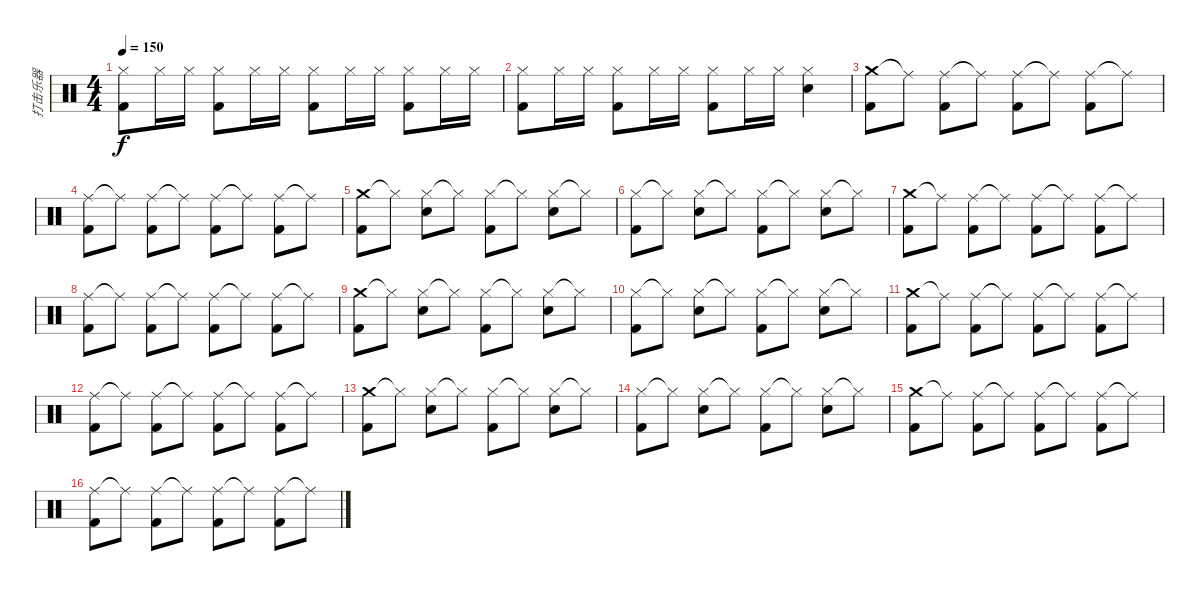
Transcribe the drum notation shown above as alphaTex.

\track ("打击乐器" "打击乐器") {instrument percussion}
\staff {score}
\articulation defaults
\ts (4 4)
\tempo 150
\clef neutral
\ks c
("Hi-Hat (closed)" "Kick (hit) 2").8{dy f} "Hi-Hat (closed)".16 "Hi-Hat (closed)".16 ("Hi-Hat (closed)" "Kick (hit) 2").8 "Hi-Hat (closed)".16 "Hi-Hat (closed)".16 ("Hi-Hat (closed)" "Kick (hit) 2").8 "Hi-Hat (closed)".16 "Hi-Hat (closed)".16 ("Hi-Hat (closed)" "Kick (hit) 2").8 "Hi-Hat (closed)".16 "Hi-Hat (closed)".16 |
("Hi-Hat (closed)" "Kick (hit) 2").8 "Hi-Hat (closed)".16 "Hi-Hat (closed)".16 ("Hi-Hat (closed)" "Kick (hit) 2").8 "Hi-Hat (closed)".16 "Hi-Hat (closed)".16 ("Hi-Hat (closed)" "Kick (hit) 2").8 "Hi-Hat (closed)".16 "Hi-Hat (closed)".16 ("Hi-Hat (closed)" "Snare (hit) 2").4 |
("Crash medium (hit)" "Kick (hit) 2").8 "Ride (middle)"{t}.8 ("Ride (middle)" "Kick (hit) 2").8 "Ride (middle)"{t}.8 ("Ride (middle)" "Kick (hit) 2").8 "Ride (middle)"{t}.8 ("Ride (middle)" "Kick (hit) 2").8 "Ride (middle)"{t}.8 |
("Ride (middle)" "Kick (hit) 2").8 "Ride (middle)"{t}.8 ("Ride (middle)" "Kick (hit) 2").8 "Ride (middle)"{t}.8 ("Ride (middle)" "Kick (hit) 2").8 "Ride (middle)"{t}.8 ("Ride (middle)" "Kick (hit) 2").8 "Ride (middle)"{t}.8 |
("Crash medium (hit)" "Kick (hit) 2").8 "Hi-Hat (closed)"{t}.8 ("Hi-Hat (closed)" "Snare (hit) 2").8 "Hi-Hat (closed)"{t}.8 ("Hi-Hat (closed)" "Kick (hit) 2").8 "Hi-Hat (closed)"{t}.8 ("Hi-Hat (closed)" "Snare (hit) 2").8 "Hi-Hat (closed)"{t}.8 |
("Hi-Hat (closed)" "Kick (hit) 2").8 "Hi-Hat (closed)"{t}.8 ("Hi-Hat (closed)" "Snare (hit) 2").8 "Hi-Hat (closed)"{t}.8 ("Hi-Hat (closed)" "Kick (hit) 2").8 "Hi-Hat (closed)"{t}.8 ("Hi-Hat (closed)" "Snare (hit) 2").8 "Hi-Hat (closed)"{t}.8 |
("Crash medium (hit)" "Kick (hit) 2").8 "Ride (middle)"{t}.8 ("Ride (middle)" "Kick (hit) 2").8 "Ride (middle)"{t}.8 ("Ride (middle)" "Kick (hit) 2").8 "Ride (middle)"{t}.8 ("Ride (middle)" "Kick (hit) 2").8 "Ride (middle)"{t}.8 |
("Ride (middle)" "Kick (hit) 2").8 "Ride (middle)"{t}.8 ("Ride (middle)" "Kick (hit) 2").8 "Ride (middle)"{t}.8 ("Ride (middle)" "Kick (hit) 2").8 "Ride (middle)"{t}.8 ("Ride (middle)" "Kick (hit) 2").8 "Ride (middle)"{t}.8 |
("Crash medium (hit)" "Kick (hit) 2").8 "Hi-Hat (closed)"{t}.8 ("Hi-Hat (closed)" "Snare (hit) 2").8 "Hi-Hat (closed)"{t}.8 ("Hi-Hat (closed)" "Kick (hit) 2").8 "Hi-Hat (closed)"{t}.8 ("Hi-Hat (closed)" "Snare (hit) 2").8 "Hi-Hat (closed)"{t}.8 |
("Hi-Hat (closed)" "Kick (hit) 2").8 "Hi-Hat (closed)"{t}.8 ("Hi-Hat (closed)" "Snare (hit) 2").8 "Hi-Hat (closed)"{t}.8 ("Hi-Hat (closed)" "Kick (hit) 2").8 "Hi-Hat (closed)"{t}.8 ("Hi-Hat (closed)" "Snare (hit) 2").8 "Hi-Hat (closed)"{t}.8 |
("Crash medium (hit)" "Kick (hit) 2").8 "Ride (middle)"{t}.8 ("Ride (middle)" "Kick (hit) 2").8 "Ride (middle)"{t}.8 ("Ride (middle)" "Kick (hit) 2").8 "Ride (middle)"{t}.8 ("Ride (middle)" "Kick (hit) 2").8 "Ride (middle)"{t}.8 |
("Ride (middle)" "Kick (hit) 2").8 "Ride (middle)"{t}.8 ("Ride (middle)" "Kick (hit) 2").8 "Ride (middle)"{t}.8 ("Ride (middle)" "Kick (hit) 2").8 "Ride (middle)"{t}.8 ("Ride (middle)" "Kick (hit) 2").8 "Ride (middle)"{t}.8 |
("Crash medium (hit)" "Kick (hit) 2").8 "Hi-Hat (closed)"{t}.8 ("Hi-Hat (closed)" "Snare (hit) 2").8 "Hi-Hat (closed)"{t}.8 ("Hi-Hat (closed)" "Kick (hit) 2").8 "Hi-Hat (closed)"{t}.8 ("Hi-Hat (closed)" "Snare (hit) 2").8 "Hi-Hat (closed)"{t}.8 |
("Hi-Hat (closed)" "Kick (hit) 2").8 "Hi-Hat (closed)"{t}.8 ("Hi-Hat (closed)" "Snare (hit) 2").8 "Hi-Hat (closed)"{t}.8 ("Hi-Hat (closed)" "Kick (hit) 2").8 "Hi-Hat (closed)"{t}.8 ("Hi-Hat (closed)" "Snare (hit) 2").8 "Hi-Hat (closed)"{t}.8 |
("Crash medium (hit)" "Kick (hit) 2").8 "Ride (middle)"{t}.8 ("Ride (middle)" "Kick (hit) 2").8 "Ride (middle)"{t}.8 ("Ride (middle)" "Kick (hit) 2").8 "Ride (middle)"{t}.8 ("Ride (middle)" "Kick (hit) 2").8 "Ride (middle)"{t}.8 |
("Ride (middle)" "Kick (hit) 2").8 "Ride (middle)"{t}.8 ("Ride (middle)" "Kick (hit) 2").8 "Ride (middle)"{t}.8 ("Ride (middle)" "Kick (hit) 2").8 "Ride (middle)"{t}.8 ("Ride (middle)" "Kick (hit) 2").8 "Ride (middle)"{t}.8
